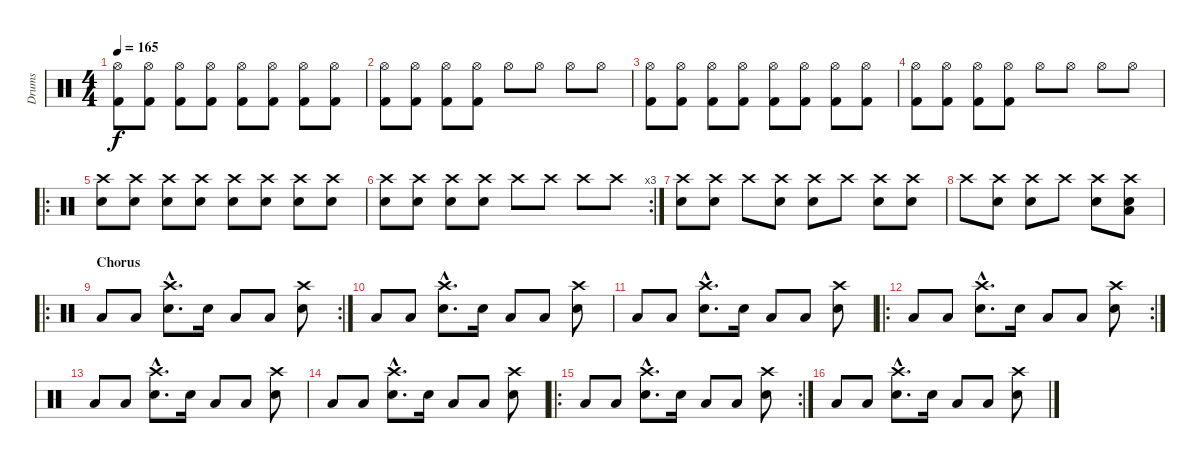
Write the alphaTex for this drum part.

\track ("Drums" "Drums") {instrument percussion}
\staff {score}
\articulation defaults
\ts (4 4)
\tempo 165
\clef neutral
\ks c
("Hi-Hat (open)" "Kick (hit) 2").8{dy f} ("Hi-Hat (open)" "Kick (hit) 2").8 ("Hi-Hat (open)" "Kick (hit) 2").8 ("Hi-Hat (open)" "Kick (hit) 2").8 ("Hi-Hat (open)" "Kick (hit) 2").8 ("Hi-Hat (open)" "Kick (hit) 2").8 ("Hi-Hat (open)" "Kick (hit) 2").8 ("Hi-Hat (open)" "Kick (hit) 2").8 |
("Hi-Hat (open)" "Kick (hit) 2").8 ("Hi-Hat (open)" "Kick (hit) 2").8 ("Hi-Hat (open)" "Kick (hit) 2").8 ("Hi-Hat (open)" "Kick (hit) 2").8 "Hi-Hat (open)".8 "Hi-Hat (open)".8 "Hi-Hat (open)".8 "Hi-Hat (open)".8 |
("Hi-Hat (open)" "Kick (hit) 2").8 ("Hi-Hat (open)" "Kick (hit) 2").8 ("Hi-Hat (open)" "Kick (hit) 2").8 ("Hi-Hat (open)" "Kick (hit) 2").8 ("Hi-Hat (open)" "Kick (hit) 2").8 ("Hi-Hat (open)" "Kick (hit) 2").8 ("Hi-Hat (open)" "Kick (hit) 2").8 ("Hi-Hat (open)" "Kick (hit) 2").8 |
("Hi-Hat (open)" "Kick (hit) 2").8 ("Hi-Hat (open)" "Kick (hit) 2").8 ("Hi-Hat (open)" "Kick (hit) 2").8 ("Hi-Hat (open)" "Kick (hit) 2").8 "Hi-Hat (open)".8 "Hi-Hat (open)".8 "Hi-Hat (open)".8 "Hi-Hat (open)".8 |
\ro
("Crash high (hit)" "Electric Snare (hit)").8 ("Crash high (hit)" "Electric Snare (hit)").8 ("Crash high (hit)" "Electric Snare (hit)").8 ("Crash high (hit)" "Electric Snare (hit)").8 ("Crash high (hit)" "Electric Snare (hit)").8 ("Crash high (hit)" "Electric Snare (hit)").8 ("Crash high (hit)" "Electric Snare (hit)").8 ("Crash high (hit)" "Electric Snare (hit)").8 |
\rc 3
("Crash high (hit)" "Electric Snare (hit)").8 ("Crash high (hit)" "Electric Snare (hit)").8 ("Crash high (hit)" "Electric Snare (hit)").8 ("Crash high (hit)" "Electric Snare (hit)").8 "Crash high (hit)".8 "Crash high (hit)".8 "Crash high (hit)".8 "Crash high (hit)".8 |
("Crash high (hit)" "Electric Snare (hit)").8 ("Crash high (hit)" "Electric Snare (hit)").8 "Crash high (hit)".8 ("Crash high (hit)" "Electric Snare (hit)").8 ("Crash high (hit)" "Electric Snare (hit)").8 "Crash high (hit)".8 ("Crash high (hit)" "Electric Snare (hit)").8 ("Crash high (hit)" "Electric Snare (hit)").8 |
"Crash high (hit)".8 ("Crash high (hit)" "Electric Snare (hit)").8 ("Crash high (hit)" "Electric Snare (hit)").8 "Crash high (hit)".8 ("Crash high (hit)" "Electric Snare (hit)").8 ("Electric Snare (hit)" "Crash high (hit)" "Low Floor Tom (hit)").8 |
\ro
\rc 2
\section ("" "Chorus")
"Low Tom (hit)".8 "Low Tom (hit)".8 ("Electric Snare (hit)"{hac} "Crash high (hit)"{hac}).8{d} "Electric Snare (hit)".16 "Low Tom (hit)".8 "Low Tom (hit)".8 ("Electric Snare (hit)" "Crash high (hit)").8 |
"Low Tom (hit)".8 "Low Tom (hit)".8 ("Electric Snare (hit)"{hac} "Crash high (hit)"{hac}).8{d} "Electric Snare (hit)".16 "Low Tom (hit)".8 "Low Tom (hit)".8 ("Electric Snare (hit)" "Crash high (hit)").8 |
"Low Tom (hit)".8 "Low Tom (hit)".8 ("Electric Snare (hit)"{hac} "Crash high (hit)"{hac}).8{d} "Electric Snare (hit)".16 "Low Tom (hit)".8 "Low Tom (hit)".8 ("Electric Snare (hit)" "Crash high (hit)").8 |
\ro
\rc 2 "Low Tom (hit)".8 "Low Tom (hit)".8
("Electric Snare (hit)"{hac} "Crash high (hit)"{hac}).8{d} "Electric Snare (hit)".16 "Low Tom (hit)".8 "Low Tom (hit)".8 ("Electric Snare (hit)" "Crash high (hit)").8 |
"Low Tom (hit)".8 "Low Tom (hit)".8 ("Electric Snare (hit)"{hac} "Crash high (hit)"{hac}).8{d} "Electric Snare (hit)".16 "Low Tom (hit)".8 "Low Tom (hit)".8 ("Electric Snare (hit)" "Crash high (hit)").8 |
"Low Tom (hit)".8 "Low Tom (hit)".8 ("Electric Snare (hit)"{hac} "Crash high (hit)"{hac}).8{d} "Electric Snare (hit)".16 "Low Tom (hit)".8 "Low Tom (hit)".8 ("Electric Snare (hit)" "Crash high (hit)").8 |
\ro
\rc 2 "Low Tom (hit)".8 "Low Tom (hit)".8
("Electric Snare (hit)"{hac} "Crash high (hit)"{hac}).8{d} "Electric Snare (hit)".16 "Low Tom (hit)".8 "Low Tom (hit)".8 ("Electric Snare (hit)" "Crash high (hit)").8 |
"Low Tom (hit)".8 "Low Tom (hit)".8 ("Electric Snare (hit)"{hac} "Crash high (hit)"{hac}).8{d} "Electric Snare (hit)".16 "Low Tom (hit)".8 "Low Tom (hit)".8 ("Electric Snare (hit)" "Crash high (hit)").8
